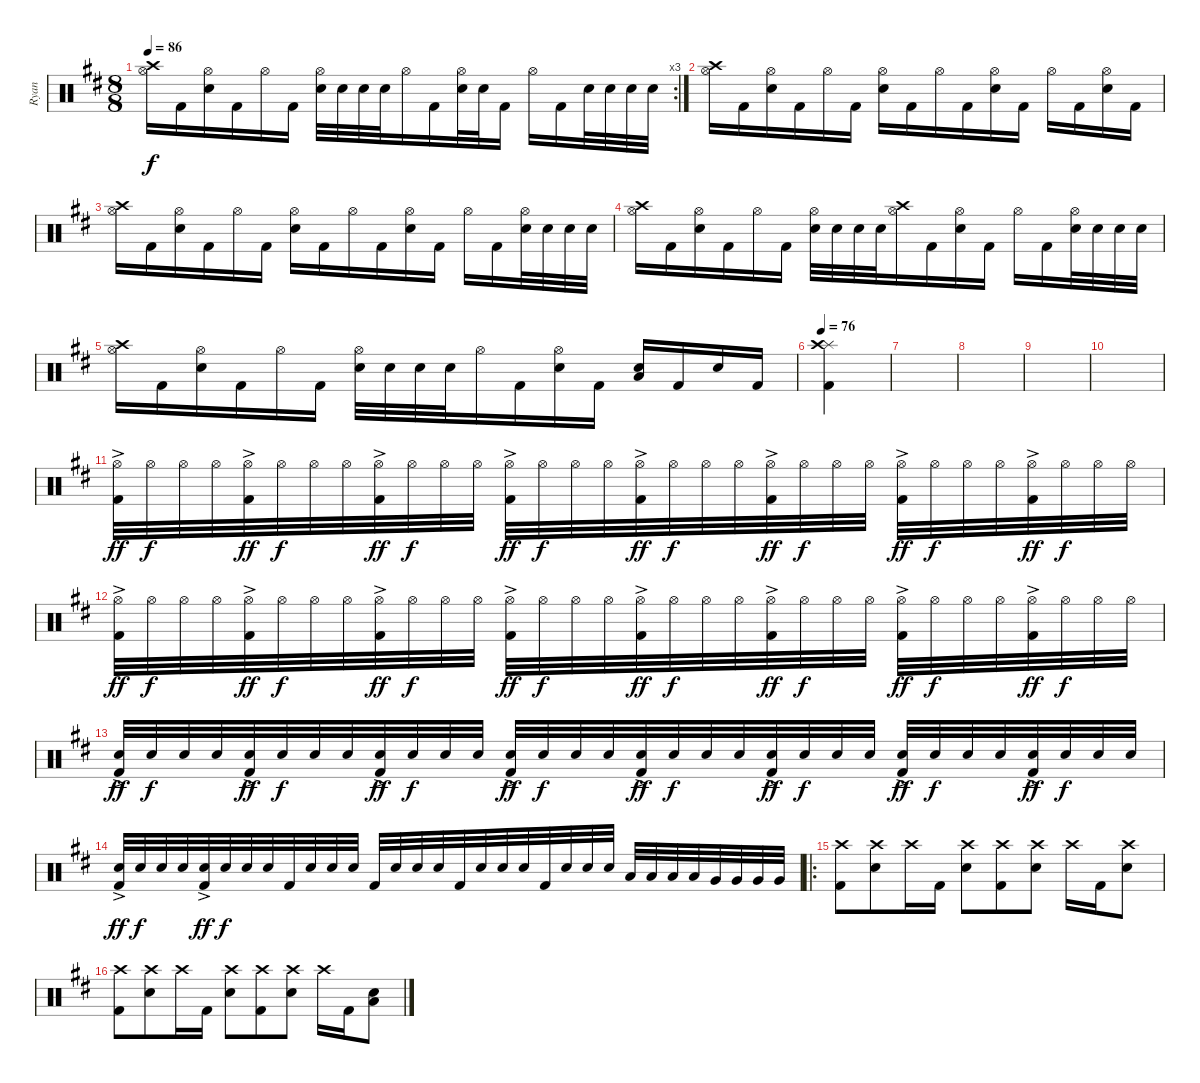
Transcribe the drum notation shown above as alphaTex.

\track ("Ryan" "Ryan") {instrument percussion}
\staff {score}
\articulation defaults
\rc 3
\ts (8 8)
\tempo 86
\clef neutral
\ks d
("Crash high (hit)" "Hi-Hat (open)").16{dy f} "Kick (hit) 2".16 ("Hi-Hat (open)" "Snare (hit) 2").16 "Kick (hit) 2".16 "Hi-Hat (open)".16 "Kick (hit) 2".16 ("Hi-Hat (open)" "Snare (hit) 2").32 "Snare (hit) 2".32 "Snare (hit) 2".32 "Snare (hit) 2".32 "Hi-Hat (open)".16 "Kick (hit) 2".16 ("Hi-Hat (open)" "Snare (hit) 2").32 "Snare (hit) 2".32 "Kick (hit) 2".16 "Hi-Hat (open)".16 "Kick (hit) 2".16 "Snare (hit) 2".32 "Snare (hit) 2".32 "Snare (hit) 2".32 "Snare (hit) 2".32 |
("Crash high (hit)" "Hi-Hat (open)").16 "Kick (hit) 2".16 ("Hi-Hat (open)" "Snare (hit) 2").16 "Kick (hit) 2".16 "Hi-Hat (open)".16 "Kick (hit) 2".16 ("Hi-Hat (open)" "Snare (hit) 2").16 "Kick (hit) 2".16 "Hi-Hat (open)".16 "Kick (hit) 2".16 ("Hi-Hat (open)" "Snare (hit) 2").16 "Kick (hit) 2".16 "Hi-Hat (open)".16 "Kick (hit) 2".16 ("Hi-Hat (open)" "Snare (hit) 2").16 "Kick (hit) 2".16 |
("Crash high (hit)" "Hi-Hat (open)").16 "Kick (hit) 2".16 ("Hi-Hat (open)" "Snare (hit) 2").16 "Kick (hit) 2".16 "Hi-Hat (open)".16 "Kick (hit) 2".16 ("Hi-Hat (open)" "Snare (hit) 2").16 "Kick (hit) 2".16 "Hi-Hat (open)".16 "Kick (hit) 2".16 ("Hi-Hat (open)" "Snare (hit) 2").16 "Kick (hit) 2".16 "Hi-Hat (open)".16 "Kick (hit) 2".16 ("Hi-Hat (open)" "Snare (hit) 2").32 "Snare (hit) 2".32 "Snare (hit) 2".32 "Snare (hit) 2".32 |
("Crash high (hit)" "Hi-Hat (open)").16 "Kick (hit) 2".16 ("Hi-Hat (open)" "Snare (hit) 2").16 "Kick (hit) 2".16 "Hi-Hat (open)".16 "Kick (hit) 2".16 ("Hi-Hat (open)" "Snare (hit) 2").32 "Snare (hit) 2".32 "Snare (hit) 2".32 "Snare (hit) 2".32 ("Crash high (hit)" "Hi-Hat (open)").16 "Kick (hit) 2".16 ("Hi-Hat (open)" "Snare (hit) 2").16 "Kick (hit) 2".16 "Hi-Hat (open)".16 "Kick (hit) 2".16 ("Hi-Hat (open)" "Snare (hit) 2").32 "Snare (hit) 2".32 "Snare (hit) 2".32 "Snare (hit) 2".32 |
("Crash high (hit)" "Hi-Hat (open)").16 "Kick (hit) 2".16 ("Hi-Hat (open)" "Snare (hit) 2").16 "Kick (hit) 2".16 "Hi-Hat (open)".16 "Kick (hit) 2".16 ("Hi-Hat (open)" "Snare (hit) 2").32 "Snare (hit) 2".32 "Snare (hit) 2".32 "Snare (hit) 2".32 "Hi-Hat (open)".16 "Kick (hit) 2".16 ("Hi-Hat (open)" "Snare (hit) 2").16 "Kick (hit) 2".16 ("Low Tom (hit)" "Snare (hit) 2").16 "Kick (hit) 2".16 "Snare (hit) 2".16 "Kick (hit) 2".16 |
\tempo 76
("Splash (hit)" "Crash high (hit)" "Kick (hit) 2").4 |
|
|
|
|
("Hi-Hat (open)"{ac} "Kick (hit) 2").32{dy ff} "Hi-Hat (open)".32{dy f} "Hi-Hat (open)".32 "Hi-Hat (open)".32 ("Hi-Hat (open)"{ac} "Kick (hit) 2").32{dy ff} "Hi-Hat (open)".32{dy f} "Hi-Hat (open)".32 "Hi-Hat (open)".32 ("Hi-Hat (open)"{ac} "Kick (hit) 2").32{dy ff} "Hi-Hat (open)".32{dy f} "Hi-Hat (open)".32 "Hi-Hat (open)".32 ("Hi-Hat (open)"{ac} "Kick (hit) 2").32{dy ff} "Hi-Hat (open)".32{dy f} "Hi-Hat (open)".32 "Hi-Hat (open)".32 ("Hi-Hat (open)"{ac} "Kick (hit) 2").32{dy ff} "Hi-Hat (open)".32{dy f} "Hi-Hat (open)".32 "Hi-Hat (open)".32 ("Hi-Hat (open)"{ac} "Kick (hit) 2").32{dy ff} "Hi-Hat (open)".32{dy f} "Hi-Hat (open)".32 "Hi-Hat (open)".32 ("Hi-Hat (open)"{ac} "Kick (hit) 2").32{dy ff} "Hi-Hat (open)".32{dy f} "Hi-Hat (open)".32 "Hi-Hat (open)".32 ("Hi-Hat (open)"{ac} "Kick (hit) 2").32{dy ff} "Hi-Hat (open)".32{dy f} "Hi-Hat (open)".32 "Hi-Hat (open)".32 |
("Hi-Hat (open)"{ac} "Kick (hit) 2").32{dy ff} "Hi-Hat (open)".32{dy f} "Hi-Hat (open)".32 "Hi-Hat (open)".32 ("Hi-Hat (open)"{ac} "Kick (hit) 2").32{dy ff} "Hi-Hat (open)".32{dy f} "Hi-Hat (open)".32 "Hi-Hat (open)".32 ("Hi-Hat (open)"{ac} "Kick (hit) 2").32{dy ff} "Hi-Hat (open)".32{dy f} "Hi-Hat (open)".32 "Hi-Hat (open)".32 ("Hi-Hat (open)"{ac} "Kick (hit) 2").32{dy ff} "Hi-Hat (open)".32{dy f} "Hi-Hat (open)".32 "Hi-Hat (open)".32 ("Hi-Hat (open)"{ac} "Kick (hit) 2").32{dy ff} "Hi-Hat (open)".32{dy f} "Hi-Hat (open)".32 "Hi-Hat (open)".32 ("Hi-Hat (open)"{ac} "Kick (hit) 2").32{dy ff} "Hi-Hat (open)".32{dy f} "Hi-Hat (open)".32 "Hi-Hat (open)".32 ("Hi-Hat (open)"{ac} "Kick (hit) 2").32{dy ff} "Hi-Hat (open)".32{dy f} "Hi-Hat (open)".32 "Hi-Hat (open)".32 ("Hi-Hat (open)"{ac} "Kick (hit) 2").32{dy ff} "Hi-Hat (open)".32{dy f} "Hi-Hat (open)".32 "Hi-Hat (open)".32 |
("Snare (hit) 2"{ac} "Kick (hit) 2").32{dy ff} "Snare (hit) 2".32{dy f} "Snare (hit) 2".32 "Snare (hit) 2".32 ("Snare (hit) 2"{ac} "Kick (hit) 2").32{dy ff} "Snare (hit) 2".32{dy f} "Snare (hit) 2".32 "Snare (hit) 2".32 ("Snare (hit) 2"{ac} "Kick (hit) 2").32{dy ff} "Snare (hit) 2".32{dy f} "Snare (hit) 2".32 "Snare (hit) 2".32 ("Snare (hit) 2"{ac} "Kick (hit) 2").32{dy ff} "Snare (hit) 2".32{dy f} "Snare (hit) 2".32 "Snare (hit) 2".32 ("Snare (hit) 2"{ac} "Kick (hit) 2").32{dy ff} "Snare (hit) 2".32{dy f} "Snare (hit) 2".32 "Snare (hit) 2".32 ("Snare (hit) 2"{ac} "Kick (hit) 2").32{dy ff} "Snare (hit) 2".32{dy f} "Snare (hit) 2".32 "Snare (hit) 2".32 ("Snare (hit) 2"{ac} "Kick (hit) 2").32{dy ff} "Snare (hit) 2".32{dy f} "Snare (hit) 2".32 "Snare (hit) 2".32 ("Snare (hit) 2"{ac} "Kick (hit) 2").32{dy ff} "Snare (hit) 2".32{dy f} "Snare (hit) 2".32 "Snare (hit) 2".32 |
("Snare (hit) 2"{ac} "Kick (hit) 2").32{dy ff} "Snare (hit) 2".32{dy f} "Snare (hit) 2".32 "Snare (hit) 2".32 ("Snare (hit) 2"{ac} "Kick (hit) 2").32{dy ff} "Snare (hit) 2".32{dy f} "Snare (hit) 2".32 "Snare (hit) 2".32 "Kick (hit) 2".32 "Snare (hit) 2".32 "Snare (hit) 2".32 "Snare (hit) 2".32 "Kick (hit) 2".32 "Snare (hit) 2".32 "Snare (hit) 2".32 "Snare (hit) 2".32 "Kick (hit) 2".32 "Snare (hit) 2".32 "Snare (hit) 2".32 "Snare (hit) 2".32 "Kick (hit) 2".32 "Snare (hit) 2".32 "Snare (hit) 2".32 "Snare (hit) 2".32 "Low Tom (hit)".32 "Low Tom (hit)".32 "Low Tom (hit)".32 "Low Tom (hit)".32 "Very Low Tom (hit)".32 "Very Low Tom (hit)".32 "Very Low Tom (hit)".32 "Very Low Tom (hit)".32 |
\ro
("Crash high (hit)" "Kick (hit) 2").8 ("Crash high (hit)" "Snare (hit) 2").8 "Crash high (hit)".16 "Kick (hit) 2".16 ("Crash high (hit)" "Snare (hit) 2").8 ("Crash high (hit)" "Kick (hit) 2").8 ("Crash high (hit)" "Snare (hit) 2").8 "Crash high (hit)".16 "Kick (hit) 2".16 ("Crash high (hit)" "Snare (hit) 2").8 |
("Crash high (hit)" "Kick (hit) 2").8 ("Crash high (hit)" "Snare (hit) 2").8 "Crash high (hit)".16 "Kick (hit) 2".16 ("Crash high (hit)" "Snare (hit) 2").8 ("Crash high (hit)" "Kick (hit) 2").8 ("Crash high (hit)" "Snare (hit) 2").8 "Crash high (hit)".16 "Kick (hit) 2".16 ("Low Tom (hit)" "Snare (hit) 2").8
